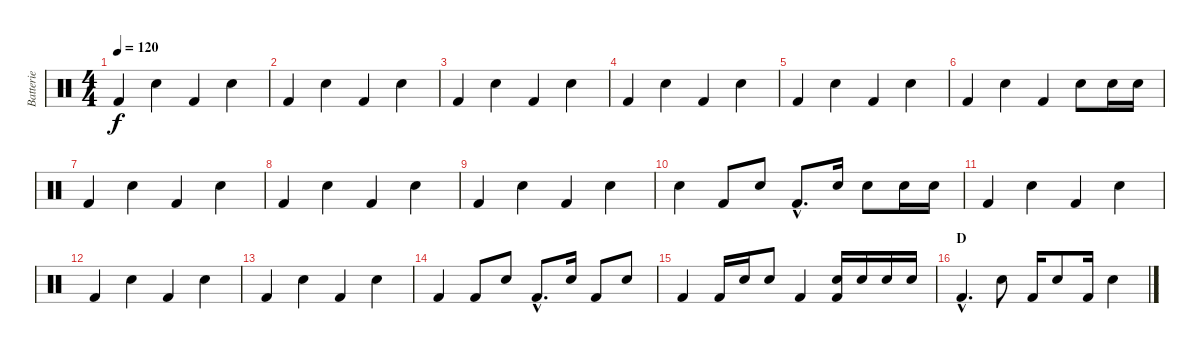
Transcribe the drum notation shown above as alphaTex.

\track ("Batterie" "Batterie") {instrument percussion}
\staff {score}
\articulation defaults
\ts (4 4)
\tempo 120
\clef neutral
\ks c "Kick (hit) 2".4{dy f} "Electric Snare (hit)".4 "Kick (hit) 2".4 "Electric Snare (hit)".4
|
"Kick (hit) 2".4 "Electric Snare (hit)".4 "Kick (hit) 2".4 "Electric Snare (hit)".4 |
"Kick (hit) 2".4 "Electric Snare (hit)".4 "Kick (hit) 2".4 "Electric Snare (hit)".4 |
"Kick (hit) 2".4 "Electric Snare (hit)".4 "Kick (hit) 2".4 "Electric Snare (hit)".4 |
"Kick (hit) 2".4 "Electric Snare (hit)".4 "Kick (hit) 2".4 "Electric Snare (hit)".4 |
"Kick (hit) 2".4 "Electric Snare (hit)".4 "Kick (hit) 2".4 "Electric Snare (hit)".8 "Electric Snare (hit)".16 "Electric Snare (hit)".16 |
"Kick (hit) 2".4 "Electric Snare (hit)".4 "Kick (hit) 2".4 "Electric Snare (hit)".4 |
"Kick (hit) 2".4 "Electric Snare (hit)".4 "Kick (hit) 2".4 "Electric Snare (hit)".4 |
"Kick (hit) 2".4 "Electric Snare (hit)".4 "Kick (hit) 2".4 "Electric Snare (hit)".4 |
"Electric Snare (hit)".4 "Kick (hit) 2".8 "Electric Snare (hit)".8 "Kick (hit) 2"{hac}.8{d} "Electric Snare (hit)".16 "Electric Snare (hit)".8 "Electric Snare (hit)".16 "Electric Snare (hit)".16 |
"Kick (hit) 2".4 "Electric Snare (hit)".4 "Kick (hit) 2".4 "Electric Snare (hit)".4 |
"Kick (hit) 2".4 "Electric Snare (hit)".4 "Kick (hit) 2".4 "Electric Snare (hit)".4 |
"Kick (hit) 2".4 "Electric Snare (hit)".4 "Kick (hit) 2".4 "Electric Snare (hit)".4 |
"Kick (hit) 2".4 "Kick (hit) 2".8 "Electric Snare (hit)".8 "Kick (hit) 2"{hac}.8{d} "Electric Snare (hit)".16 "Kick (hit) 2".8 "Electric Snare (hit)".8 |
"Kick (hit) 2".4 "Kick (hit) 2".16 "Electric Snare (hit)".16 "Electric Snare (hit)".8 "Kick (hit) 2".4 ("Electric Snare (hit)" "Kick (hit) 2").16 "Electric Snare (hit)".16 "Electric Snare (hit)".16 "Electric Snare (hit)".16 |
\section ("" "D")
"Kick (hit) 2"{hac}.4{d} "Electric Snare (hit)".8 "Kick (hit) 2".16 "Electric Snare (hit)".8 "Kick (hit) 2".16 "Electric Snare (hit)".4
